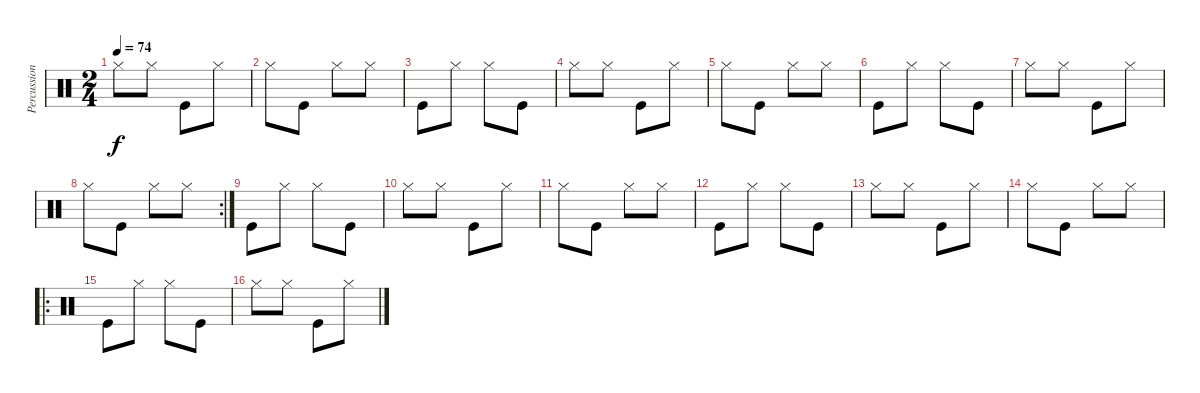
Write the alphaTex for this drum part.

\track ("Percussion" "Percussion") {instrument percussion}
\staff {score}
\articulation defaults
\ts (2 4)
\tempo 74
\clef neutral
\ks c "Hi-Hat (closed)".8{dy f} "Hi-Hat (closed)".8 "Kick (hit)".8 "Hi-Hat (closed)".8
|
"Hi-Hat (closed)".8 "Kick (hit)".8 "Hi-Hat (closed)".8 "Hi-Hat (closed)".8 |
"Kick (hit)".8 "Hi-Hat (closed)".8 "Hi-Hat (closed)".8 "Kick (hit)".8 |
"Hi-Hat (closed)".8 "Hi-Hat (closed)".8 "Kick (hit)".8 "Hi-Hat (closed)".8 |
"Hi-Hat (closed)".8 "Kick (hit)".8 "Hi-Hat (closed)".8 "Hi-Hat (closed)".8 |
"Kick (hit)".8 "Hi-Hat (closed)".8 "Hi-Hat (closed)".8 "Kick (hit)".8 |
"Hi-Hat (closed)".8 "Hi-Hat (closed)".8 "Kick (hit)".8 "Hi-Hat (closed)".8 |
\rc 2 "Hi-Hat (closed)".8 "Kick (hit)".8 "Hi-Hat (closed)".8 "Hi-Hat (closed)".8
|
"Kick (hit)".8 "Hi-Hat (closed)".8 "Hi-Hat (closed)".8 "Kick (hit)".8 |
"Hi-Hat (closed)".8 "Hi-Hat (closed)".8 "Kick (hit)".8 "Hi-Hat (closed)".8 |
"Hi-Hat (closed)".8 "Kick (hit)".8 "Hi-Hat (closed)".8 "Hi-Hat (closed)".8 |
"Kick (hit)".8 "Hi-Hat (closed)".8 "Hi-Hat (closed)".8 "Kick (hit)".8 |
"Hi-Hat (closed)".8 "Hi-Hat (closed)".8 "Kick (hit)".8 "Hi-Hat (closed)".8 |
"Hi-Hat (closed)".8 "Kick (hit)".8 "Hi-Hat (closed)".8 "Hi-Hat (closed)".8 |
\ro "Kick (hit)".8 "Hi-Hat (closed)".8 "Hi-Hat (closed)".8 "Kick (hit)".8
|
"Hi-Hat (closed)".8 "Hi-Hat (closed)".8 "Kick (hit)".8 "Hi-Hat (closed)".8
